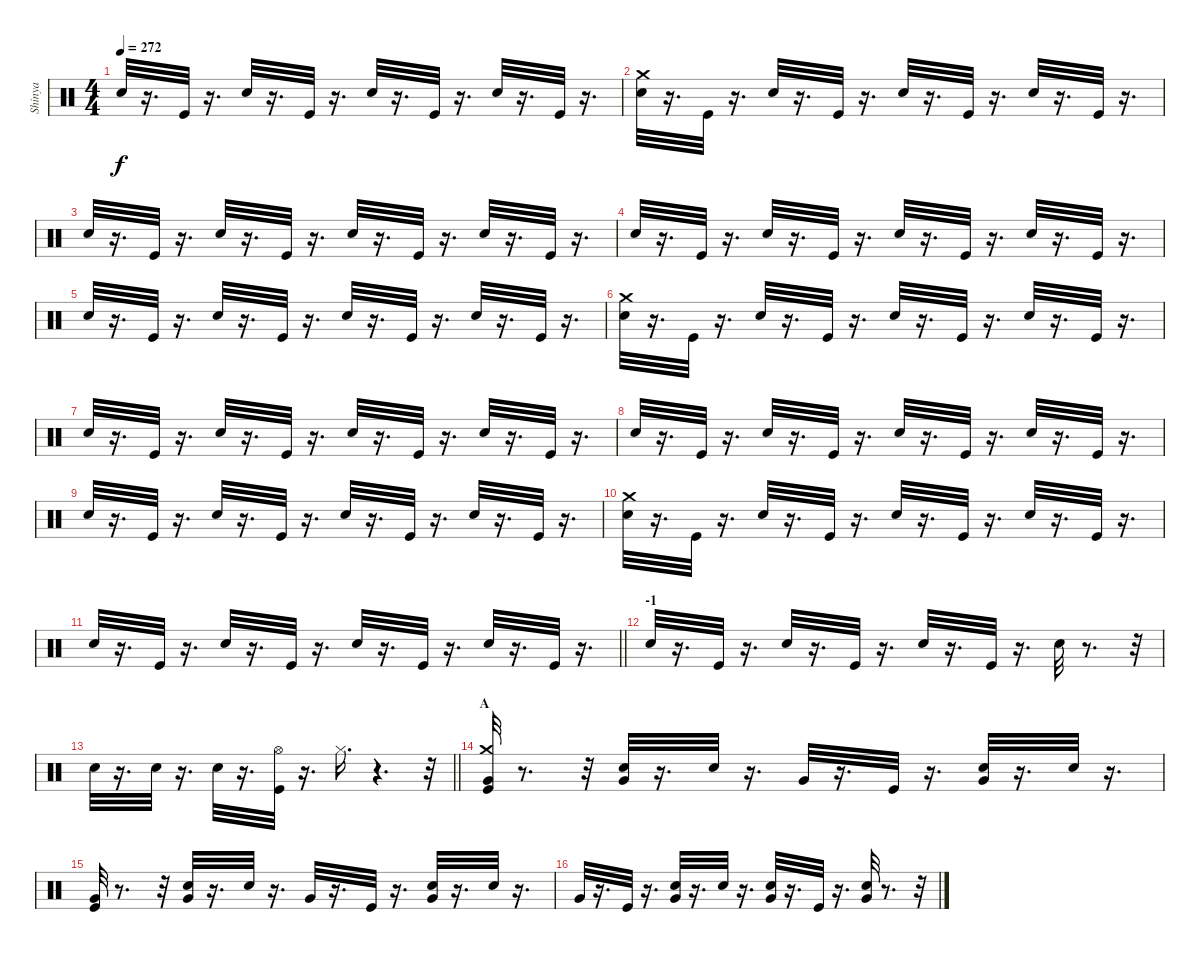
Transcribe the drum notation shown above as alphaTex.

\track ("Shinya" "Shinya") {instrument percussion}
\staff {score}
\articulation defaults
\ts (4 4)
\tempo 272
\clef neutral
\ks c "Snare (hit) 2".32{dy f}
r.16{d} "Kick (hit)".32 r.16{d} "Snare (hit) 2".32 r.16{d} "Kick (hit)".32 r.16{d} "Snare (hit) 2".32 r.16{d} "Kick (hit)".32 r.16{d} "Snare (hit) 2".32 r.16{d} "Kick (hit)".32 r.16{d} |
("Crash medium (hit)" "Snare (hit) 2").32 r.16{d} "Kick (hit)".32 r.16{d} "Snare (hit) 2".32 r.16{d} "Kick (hit)".32 r.16{d} "Snare (hit) 2".32 r.16{d} "Kick (hit)".32 r.16{d} "Snare (hit) 2".32 r.16{d} "Kick (hit)".32 r.16{d} |
"Snare (hit) 2".32 r.16{d} "Kick (hit)".32 r.16{d} "Snare (hit) 2".32 r.16{d} "Kick (hit)".32 r.16{d} "Snare (hit) 2".32 r.16{d} "Kick (hit)".32 r.16{d} "Snare (hit) 2".32 r.16{d} "Kick (hit)".32 r.16{d} |
"Snare (hit) 2".32 r.16{d} "Kick (hit)".32 r.16{d} "Snare (hit) 2".32 r.16{d} "Kick (hit)".32 r.16{d} "Snare (hit) 2".32 r.16{d} "Kick (hit)".32 r.16{d} "Snare (hit) 2".32 r.16{d} "Kick (hit)".32 r.16{d} |
"Snare (hit) 2".32 r.16{d} "Kick (hit)".32 r.16{d} "Snare (hit) 2".32 r.16{d} "Kick (hit)".32 r.16{d} "Snare (hit) 2".32 r.16{d} "Kick (hit)".32 r.16{d} "Snare (hit) 2".32 r.16{d} "Kick (hit)".32 r.16{d} |
("Crash medium (hit)" "Snare (hit) 2").32 r.16{d} "Kick (hit)".32 r.16{d} "Snare (hit) 2".32 r.16{d} "Kick (hit)".32 r.16{d} "Snare (hit) 2".32 r.16{d} "Kick (hit)".32 r.16{d} "Snare (hit) 2".32 r.16{d} "Kick (hit)".32 r.16{d} |
"Snare (hit) 2".32 r.16{d} "Kick (hit)".32 r.16{d} "Snare (hit) 2".32 r.16{d} "Kick (hit)".32 r.16{d} "Snare (hit) 2".32 r.16{d} "Kick (hit)".32 r.16{d} "Snare (hit) 2".32 r.16{d} "Kick (hit)".32 r.16{d} |
"Snare (hit) 2".32 r.16{d} "Kick (hit)".32 r.16{d} "Snare (hit) 2".32 r.16{d} "Kick (hit)".32 r.16{d} "Snare (hit) 2".32 r.16{d} "Kick (hit)".32 r.16{d} "Snare (hit) 2".32 r.16{d} "Kick (hit)".32 r.16{d} |
"Snare (hit) 2".32 r.16{d} "Kick (hit)".32 r.16{d} "Snare (hit) 2".32 r.16{d} "Kick (hit)".32 r.16{d} "Snare (hit) 2".32 r.16{d} "Kick (hit)".32 r.16{d} "Snare (hit) 2".32 r.16{d} "Kick (hit)".32 r.16{d} |
("Crash medium (hit)" "Snare (hit) 2").32 r.16{d} "Kick (hit)".32 r.16{d} "Snare (hit) 2".32 r.16{d} "Kick (hit)".32 r.16{d} "Snare (hit) 2".32 r.16{d} "Kick (hit)".32 r.16{d} "Snare (hit) 2".32 r.16{d} "Kick (hit)".32 r.16{d} |
\barLineRight lightlight "Snare (hit) 2".32
r.16{d} "Kick (hit)".32 r.16{d} "Snare (hit) 2".32 r.16{d} "Kick (hit)".32 r.16{d} "Snare (hit) 2".32 r.16{d} "Kick (hit)".32 r.16{d} "Snare (hit) 2".32 r.16{d} "Kick (hit)".32 r.16{d} |
\section ("" "-1")
"Snare (hit) 2".32 r.16{d} "Kick (hit)".32 r.16{d} "Snare (hit) 2".32 r.16{d} "Kick (hit)".32 r.16{d} "Snare (hit) 2".32 r.16{d} "Kick (hit)".32 r.16{d} "Snare (hit) 2".32 r.8{d} r.32 |
\barLineRight lightlight "Snare (hit) 2".32
r.16{d} "Snare (hit) 2".32 r.16{d} "Snare (hit) 2".32 r.16{d} ("Hi-Hat (open)" "Kick (hit)").32 r.16{d} "Hi-Hat (closed)".16{d} r.4{d} r.32 |
\section ("" "A")
("Very Low Tom (hit)" "Kick (hit)" "Crash medium (hit)").32 r.8{d} r.32 ("Snare (hit) 2" "Very Low Tom (hit)").32 r.16{d} "Snare (hit) 2".32 r.16{d} "Very Low Tom (hit)".32 r.16{d} "Kick (hit)".32 r.16{d} ("Very Low Tom (hit)" "Snare (hit) 2").32 r.16{d} "Snare (hit) 2".32 r.16{d} |
("Very Low Tom (hit)" "Kick (hit)").32 r.8{d} r.32 ("Snare (hit) 2" "Very Low Tom (hit)").32 r.16{d} "Snare (hit) 2".32 r.16{d} "Very Low Tom (hit)".32 r.16{d} "Kick (hit)".32 r.16{d} ("Very Low Tom (hit)" "Snare (hit) 2").32 r.16{d} "Snare (hit) 2".32 r.16{d} |
"Very Low Tom (hit)".32 r.16{d} "Kick (hit)".32 r.16{d} ("Very Low Tom (hit)" "Snare (hit) 2").32 r.16{d} "Snare (hit) 2".32 r.16{d} ("Snare (hit) 2" "Very Low Tom (hit)").32 r.16{d} "Kick (hit)".32 r.16{d} ("Very Low Tom (hit)" "Snare (hit) 2").32 r.8{d} r.32
